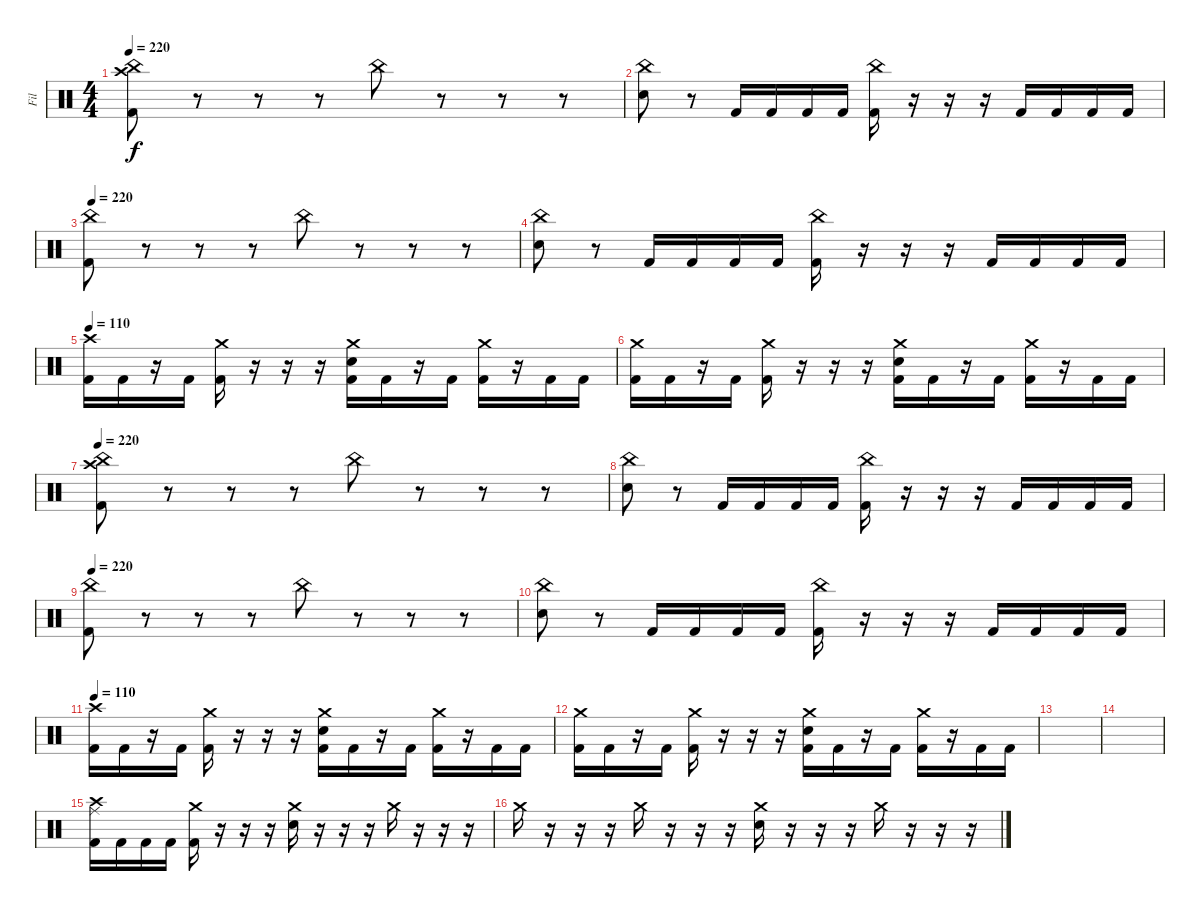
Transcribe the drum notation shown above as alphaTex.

\track ("Fil" "Fil") {instrument percussion}
\staff {score}
\articulation defaults
\ts (4 4)
\tempo 220
\clef neutral
\ks c
("Crash high (hit)" "China (hit)" "Kick (hit) 2").8{dy f} r.8 r.8 r.8 "China (hit)".8 r.8 r.8 r.8 |
("China (hit)" "Electric Snare (hit)").8 r.8 "Kick (hit) 2".16 "Kick (hit) 2".16 "Kick (hit) 2".16 "Kick (hit) 2".16 ("China (hit)" "Kick (hit) 2").16 r.16 r.16 r.16 "Kick (hit) 2".16 "Kick (hit) 2".16 "Kick (hit) 2".16 "Kick (hit) 2".16 |
\tempo 220
("China (hit)" "Kick (hit) 2").8 r.8 r.8 r.8 "China (hit)".8 r.8 r.8 r.8 |
("China (hit)" "Electric Snare (hit)").8 r.8 "Kick (hit) 2".16 "Kick (hit) 2".16 "Kick (hit) 2".16 "Kick (hit) 2".16 ("China (hit)" "Kick (hit) 2").16 r.16 r.16 r.16 "Kick (hit) 2".16 "Kick (hit) 2".16 "Kick (hit) 2".16 "Kick (hit) 2".16 |
\tempo 110
("Crash high (hit)" "Kick (hit) 2").16 "Kick (hit) 2".16 r.16 "Kick (hit) 2".16 ("Crash medium (hit)" "Kick (hit) 2").16 r.16 r.16 r.16 ("Crash medium (hit)" "Electric Snare (hit)" "Kick (hit) 2").16 "Kick (hit) 2".16 r.16 "Kick (hit) 2".16 ("Crash medium (hit)" "Kick (hit) 2").16 r.16 "Kick (hit) 2".16 "Kick (hit) 2".16 |
("Crash medium (hit)" "Kick (hit) 2").16 "Kick (hit) 2".16 r.16 "Kick (hit) 2".16 ("Crash medium (hit)" "Kick (hit) 2").16 r.16 r.16 r.16 ("Crash medium (hit)" "Electric Snare (hit)" "Kick (hit) 2").16 "Kick (hit) 2".16 r.16 "Kick (hit) 2".16 ("Crash medium (hit)" "Kick (hit) 2").16 r.16 "Kick (hit) 2".16 "Kick (hit) 2".16 |
\tempo 220
("Crash high (hit)" "China (hit)" "Kick (hit) 2").8 r.8 r.8 r.8 "China (hit)".8 r.8 r.8 r.8 |
("China (hit)" "Electric Snare (hit)").8 r.8 "Kick (hit) 2".16 "Kick (hit) 2".16 "Kick (hit) 2".16 "Kick (hit) 2".16 ("China (hit)" "Kick (hit) 2").16 r.16 r.16 r.16 "Kick (hit) 2".16 "Kick (hit) 2".16 "Kick (hit) 2".16 "Kick (hit) 2".16 |
\tempo 220
("China (hit)" "Kick (hit) 2").8 r.8 r.8 r.8 "China (hit)".8 r.8 r.8 r.8 |
("China (hit)" "Electric Snare (hit)").8 r.8 "Kick (hit) 2".16 "Kick (hit) 2".16 "Kick (hit) 2".16 "Kick (hit) 2".16 ("China (hit)" "Kick (hit) 2").16 r.16 r.16 r.16 "Kick (hit) 2".16 "Kick (hit) 2".16 "Kick (hit) 2".16 "Kick (hit) 2".16 |
\tempo 110
("Crash high (hit)" "Kick (hit) 2").16 "Kick (hit) 2".16 r.16 "Kick (hit) 2".16 ("Crash medium (hit)" "Kick (hit) 2").16 r.16 r.16 r.16 ("Crash medium (hit)" "Electric Snare (hit)" "Kick (hit) 2").16 "Kick (hit) 2".16 r.16 "Kick (hit) 2".16 ("Crash medium (hit)" "Kick (hit) 2").16 r.16 "Kick (hit) 2".16 "Kick (hit) 2".16 |
("Crash medium (hit)" "Kick (hit) 2").16 "Kick (hit) 2".16 r.16 "Kick (hit) 2".16 ("Crash medium (hit)" "Kick (hit) 2").16 r.16 r.16 r.16 ("Crash medium (hit)" "Electric Snare (hit)" "Kick (hit) 2").16 "Kick (hit) 2".16 r.16 "Kick (hit) 2".16 ("Crash medium (hit)" "Kick (hit) 2").16 r.16 "Kick (hit) 2".16 "Kick (hit) 2".16 |
|
|
("Crash high (hit)" "Ride (middle)" "Kick (hit) 2").16 "Kick (hit) 2".16 "Kick (hit) 2".16 "Kick (hit) 2".16 ("Crash medium (hit)" "Kick (hit) 2").16 r.16 r.16 r.16 ("Crash medium (hit)" "Electric Snare (hit)").16 r.16 r.16 r.16 "Crash medium (hit)".16 r.16 r.16 r.16 |
"Crash medium (hit)".16 r.16 r.16 r.16 "Crash medium (hit)".16 r.16 r.16 r.16 ("Crash medium (hit)" "Electric Snare (hit)").16 r.16 r.16 r.16 "Crash medium (hit)".16 r.16 r.16 r.16
